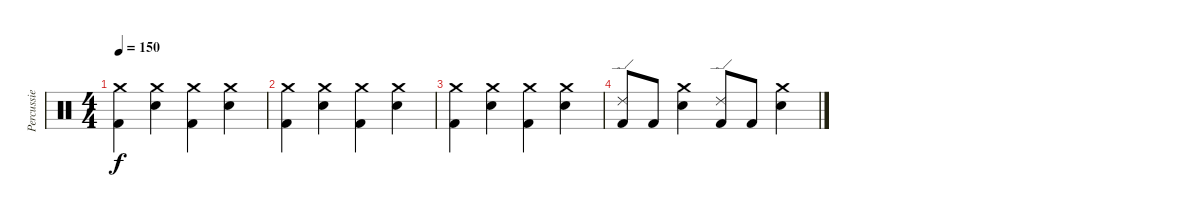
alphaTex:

\track ("Percussie" "Percussie") {instrument percussion}
\staff {score}
\articulation defaults
\ts (4 4)
\tempo 150
\clef neutral
\ks c
("Crash medium (hit)" "Kick (hit) 2").4{dy f} ("Crash medium (hit)" "Snare (hit) 2").4 ("Crash medium (hit)" "Kick (hit) 2").4 ("Crash medium (hit)" "Snare (hit) 2").4 |
("Crash medium (hit)" "Kick (hit) 2").4 ("Crash medium (hit)" "Snare (hit) 2").4 ("Crash medium (hit)" "Kick (hit) 2").4 ("Crash medium (hit)" "Snare (hit) 2").4 |
("Crash medium (hit)" "Kick (hit) 2").4 ("Crash medium (hit)" "Snare (hit) 2").4 ("Crash medium (hit)" "Kick (hit) 2").4 ("Crash medium (hit)" "Snare (hit) 2").4 |
("Ride (edge) 2" "Kick (hit) 2").8 "Kick (hit) 2".8 ("Crash medium (hit)" "Snare (hit) 2").4 ("Ride (edge) 2" "Kick (hit) 2").8 "Kick (hit) 2".8 ("Crash medium (hit)" "Snare (hit) 2").4
